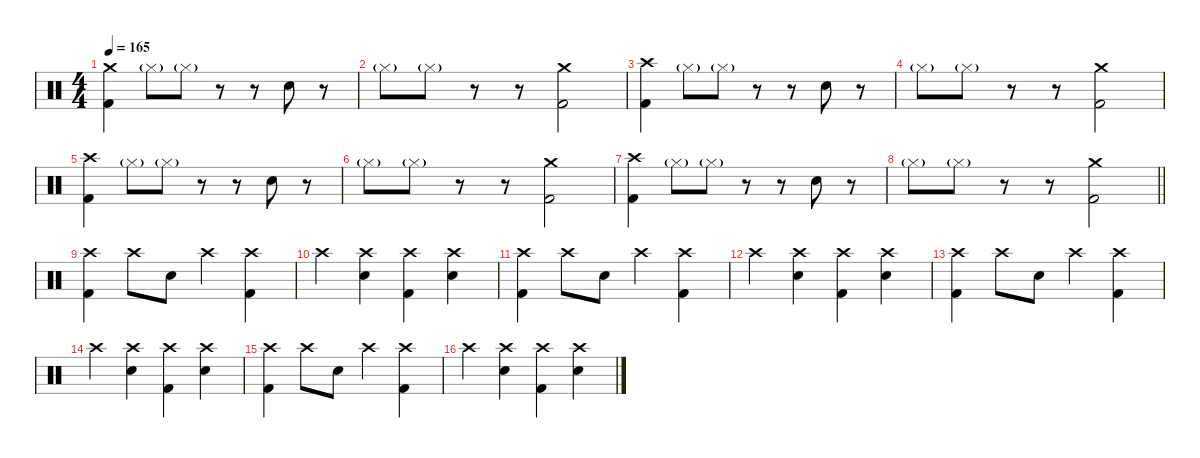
\defaultSystemsLayout 4
\hideDynamics
\bracketExtendMode nobrackets
\singleTrackTrackNamePolicy hidden
\multiTrackTrackNamePolicy hidden
\firstSystemTrackNameMode fullname
\firstSystemTrackNameOrientation horizontal
\otherSystemsTrackNameOrientation horizontal
\track ("Marty Chapman (Drums)" "drm.") {instrument percussion}
\staff {score}
\articulation defaults
\ts (4 4)
\tempo 165
\clef neutral
\ks c
("Crash medium (hit)" "Kick (hit) 2").4{dy f beam Down} "Hi-Hat (closed)"{g}.8{beam Down} "Hi-Hat (closed)"{g}.8{beam Down} r.8{beam Down} r.8{beam Down} "Snare (hit) 2".8{beam Down} r.8{beam Down} |
"Hi-Hat (closed)"{g}.8{beam Down} "Hi-Hat (closed)"{g}.8{beam Down} r.8{beam Down} r.8{beam Down} ("Crash medium (hit)" "Kick (hit) 2").2{beam Down} |
("Crash high (hit)" "Kick (hit) 2").4{beam Down} "Hi-Hat (closed)"{g}.8{beam Down} "Hi-Hat (closed)"{g}.8{beam Down} r.8{beam Down} r.8{beam Down} "Snare (hit) 2".8{beam Down} r.8{beam Down} |
"Hi-Hat (closed)"{g}.8{beam Down} "Hi-Hat (closed)"{g}.8{beam Down} r.8{beam Down} r.8{beam Down} ("Crash medium (hit)" "Kick (hit) 2").2{beam Down} |
("Crash high (hit)" "Kick (hit) 2").4{beam Down} "Hi-Hat (closed)"{g}.8{beam Down} "Hi-Hat (closed)"{g}.8{beam Down} r.8{beam Down} r.8{beam Down} "Snare (hit) 2".8{beam Down} r.8{beam Down} |
"Hi-Hat (closed)"{g}.8{beam Down} "Hi-Hat (closed)"{g}.8{beam Down} r.8{beam Down} r.8{beam Down} ("Crash medium (hit)" "Kick (hit) 2").2{beam Down} |
("Crash high (hit)" "Kick (hit) 2").4{beam Down} "Hi-Hat (closed)"{g}.8{beam Down} "Hi-Hat (closed)"{g}.8{beam Down} r.8{beam Down} r.8{beam Down} "Snare (hit) 2".8{beam Down} r.8{beam Down} |
\barLineRight lightlight "Hi-Hat (closed)"{g}.8{beam Down} "Hi-Hat (closed)"{g}.8{beam Down}
r.8{beam Down} r.8{beam Down} ("Crash medium (hit)" "Kick (hit) 2").2{beam Down} |
("Crash high (hit)" "Kick (hit) 2").4{beam Down} "Crash high (hit)".8{beam Down} "Snare (hit) 2".8{beam Down} "Crash high (hit)".4{beam Down} ("Crash high (hit)" "Kick (hit) 2").4{beam Down} |
"Crash high (hit)".4{beam Down} ("Crash high (hit)" "Snare (hit) 2").4{beam Down} ("Crash high (hit)" "Kick (hit) 2").4{beam Down} ("Crash high (hit)" "Snare (hit) 2").4{beam Down} |
("Crash high (hit)" "Kick (hit) 2").4{beam Down} "Crash high (hit)".8{beam Down} "Snare (hit) 2".8{beam Down} "Crash high (hit)".4{beam Down} ("Crash high (hit)" "Kick (hit) 2").4{beam Down} |
"Crash high (hit)".4{beam Down} ("Crash high (hit)" "Snare (hit) 2").4{beam Down} ("Crash high (hit)" "Kick (hit) 2").4{beam Down} ("Crash high (hit)" "Snare (hit) 2").4{beam Down} |
("Crash high (hit)" "Kick (hit) 2").4{beam Down} "Crash high (hit)".8{beam Down} "Snare (hit) 2".8{beam Down} "Crash high (hit)".4{beam Down} ("Crash high (hit)" "Kick (hit) 2").4{beam Down} |
"Crash high (hit)".4{beam Down} ("Crash high (hit)" "Snare (hit) 2").4{beam Down} ("Crash high (hit)" "Kick (hit) 2").4{beam Down} ("Crash high (hit)" "Snare (hit) 2").4{beam Down} |
("Crash high (hit)" "Kick (hit) 2").4{beam Down} "Crash high (hit)".8{beam Down} "Snare (hit) 2".8{beam Down} "Crash high (hit)".4{beam Down} ("Crash high (hit)" "Kick (hit) 2").4{beam Down} |
"Crash high (hit)".4{beam Down} ("Crash high (hit)" "Snare (hit) 2").4{beam Down} ("Crash high (hit)" "Kick (hit) 2").4{beam Down} ("Crash high (hit)" "Snare (hit) 2").4{beam Down}
